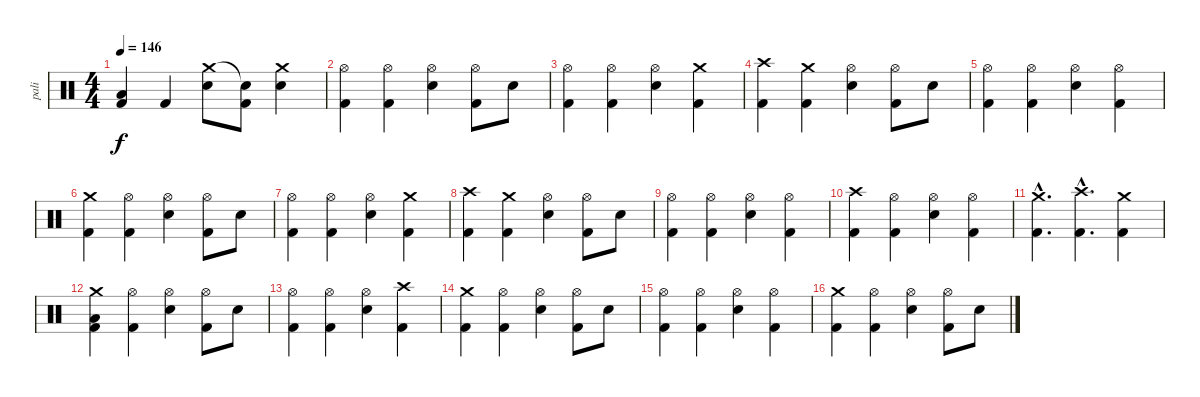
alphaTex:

\track ("pali" "pali") {instrument percussion}
\staff {score}
\articulation defaults
\ts (4 4)
\tempo 146
\clef neutral
\ks c
("Kick (hit) 2" "Low Floor Tom (hit)").4{dy f} "Kick (hit) 2".4 ("Electric Snare (hit)" "Crash medium (hit)").8 ("Kick (hit) 2" "Snare (hit)"{t}).8 ("Electric Snare (hit)" "Crash medium (hit)").4 |
("Kick (hit) 2" "Hi-Hat (open)").4 ("Kick (hit) 2" "Hi-Hat (open)").4 ("Electric Snare (hit)" "Hi-Hat (open)").4 ("Kick (hit) 2" "Hi-Hat (open)").8 "Electric Snare (hit)".8 |
("Kick (hit) 2" "Hi-Hat (open)").4 ("Kick (hit) 2" "Hi-Hat (open)").4 ("Electric Snare (hit)" "Hi-Hat (open)").4 ("Kick (hit) 2" "Crash medium (hit)").4 |
("Kick (hit) 2" "Crash high (hit)").4 ("Kick (hit) 2" "Crash medium (hit)").4 ("Electric Snare (hit)" "Hi-Hat (open)").4 ("Kick (hit) 2" "Hi-Hat (open)").8 "Electric Snare (hit)".8 |
("Kick (hit) 2" "Hi-Hat (open)").4 ("Kick (hit) 2" "Hi-Hat (open)").4 ("Electric Snare (hit)" "Hi-Hat (open)").4 ("Kick (hit) 2" "Hi-Hat (open)").4 |
("Kick (hit) 2" "Crash medium (hit)").4 ("Kick (hit) 2" "Hi-Hat (open)").4 ("Electric Snare (hit)" "Hi-Hat (open)").4 ("Kick (hit) 2" "Hi-Hat (open)").8 "Electric Snare (hit)".8 |
("Kick (hit) 2" "Hi-Hat (open)").4 ("Kick (hit) 2" "Hi-Hat (open)").4 ("Electric Snare (hit)" "Hi-Hat (open)").4 ("Kick (hit) 2" "Crash medium (hit)").4 |
("Kick (hit) 2" "Crash high (hit)").4 ("Kick (hit) 2" "Crash medium (hit)").4 ("Electric Snare (hit)" "Hi-Hat (open)").4 ("Kick (hit) 2" "Hi-Hat (open)").8 "Electric Snare (hit)".8 |
("Kick (hit) 2" "Hi-Hat (open)").4 ("Kick (hit) 2" "Hi-Hat (open)").4 ("Electric Snare (hit)" "Hi-Hat (open)").4 ("Kick (hit) 2" "Hi-Hat (open)").4 |
("Kick (hit) 2" "Crash high (hit)").4 ("Kick (hit) 2" "Hi-Hat (open)").4 ("Electric Snare (hit)" "Hi-Hat (open)").4 ("Kick (hit) 2" "Hi-Hat (open)").4 |
("Kick (hit) 2"{hac} "Crash medium (hit)"{hac}).4{d} ("Kick (hit) 2"{hac} "Crash high (hit)"{hac}).4{d} ("Kick (hit) 2" "Crash medium (hit)").4 |
("Kick (hit) 2" "Low Floor Tom (hit)" "Crash medium (hit)").4 ("Kick (hit) 2" "Hi-Hat (open)").4 ("Electric Snare (hit)" "Hi-Hat (open)").4 ("Kick (hit) 2" "Hi-Hat (open)").8 "Electric Snare (hit)".8 |
("Kick (hit) 2" "Hi-Hat (open)").4 ("Kick (hit) 2" "Hi-Hat (open)").4 ("Electric Snare (hit)" "Hi-Hat (open)").4 ("Kick (hit) 2" "Crash high (hit)").4 |
("Kick (hit) 2" "Crash medium (hit)").4 ("Kick (hit) 2" "Hi-Hat (open)").4 ("Electric Snare (hit)" "Hi-Hat (open)").4 ("Kick (hit) 2" "Hi-Hat (open)").8 "Electric Snare (hit)".8 |
("Kick (hit) 2" "Hi-Hat (open)").4 ("Kick (hit) 2" "Hi-Hat (open)").4 ("Electric Snare (hit)" "Hi-Hat (open)").4 ("Kick (hit) 2" "Hi-Hat (open)").4 |
("Kick (hit) 2" "Crash medium (hit)").4 ("Kick (hit) 2" "Hi-Hat (open)").4 ("Electric Snare (hit)" "Hi-Hat (open)").4 ("Kick (hit) 2" "Hi-Hat (open)").8 "Electric Snare (hit)".8
